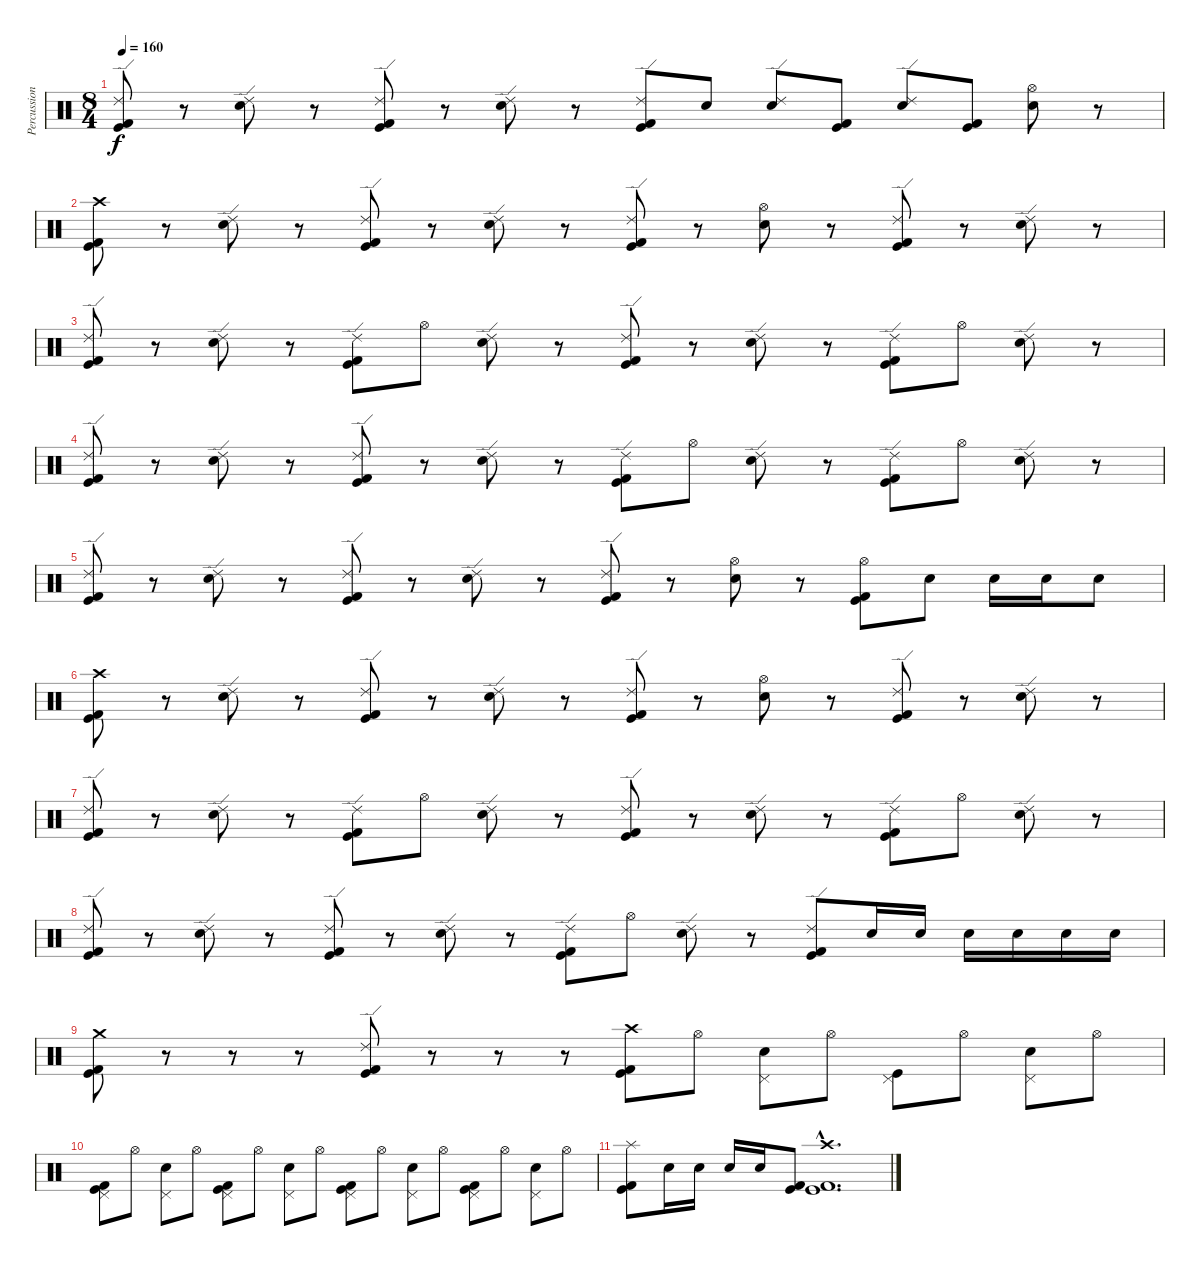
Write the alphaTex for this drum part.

\track ("Percussion" "Percussion") {instrument percussion}
\staff {score}
\articulation defaults
\ts (8 4)
\tempo 160
\clef neutral
\ks c
("Ride (edge) 2" "Kick (hit) 2" "Kick (hit)").8{dy f} r.8 ("Ride (edge) 2" "Snare (hit) 2").8 r.8 ("Ride (edge) 2" "Kick (hit) 2" "Kick (hit)").8 r.8 ("Ride (edge) 2" "Snare (hit) 2").8 r.8 ("Ride (edge) 2" "Kick (hit) 2" "Kick (hit)").8 "Snare (hit) 2".8 ("Ride (edge) 2" "Snare (hit) 2").8 ("Kick (hit) 2" "Kick (hit)").8 ("Ride (edge) 2" "Snare (hit) 2").8 ("Kick (hit) 2" "Kick (hit)").8 ("Hi-Hat (open)" "Snare (hit) 2").8 r.8 |
("Crash high (hit)" "Kick (hit) 2" "Kick (hit)").8 r.8 ("Ride (edge) 2" "Snare (hit) 2").8 r.8 ("Ride (edge) 2" "Kick (hit) 2" "Kick (hit)").8 r.8 ("Ride (edge) 2" "Snare (hit) 2").8 r.8 ("Ride (edge) 2" "Kick (hit) 2" "Kick (hit)").8 r.8 ("Hi-Hat (open)" "Snare (hit) 2").8 r.8 ("Ride (edge) 2" "Kick (hit) 2" "Kick (hit)").8 r.8 ("Ride (edge) 2" "Snare (hit) 2").8 r.8 |
("Ride (edge) 2" "Kick (hit) 2" "Kick (hit)").8 r.8 ("Ride (edge) 2" "Snare (hit) 2").8 r.8 ("Ride (edge) 2" "Kick (hit) 2" "Kick (hit)").8 "Hi-Hat (open)".8 ("Ride (edge) 2" "Snare (hit) 2").8 r.8 ("Ride (edge) 2" "Kick (hit) 2" "Kick (hit)").8 r.8 ("Ride (edge) 2" "Snare (hit) 2").8 r.8 ("Ride (edge) 2" "Kick (hit) 2" "Kick (hit)").8 "Hi-Hat (open)".8 ("Ride (edge) 2" "Snare (hit) 2").8 r.8 |
("Ride (edge) 2" "Kick (hit) 2" "Kick (hit)").8 r.8 ("Ride (edge) 2" "Snare (hit) 2").8 r.8 ("Ride (edge) 2" "Kick (hit) 2" "Kick (hit)").8 r.8 ("Ride (edge) 2" "Snare (hit) 2").8 r.8 ("Ride (edge) 2" "Kick (hit) 2" "Kick (hit)").8 "Hi-Hat (open)".8 ("Ride (edge) 2" "Snare (hit) 2").8 r.8 ("Ride (edge) 2" "Kick (hit) 2" "Kick (hit)").8 "Hi-Hat (open)".8 ("Ride (edge) 2" "Snare (hit) 2").8 r.8 |
("Ride (edge) 2" "Kick (hit) 2" "Kick (hit)").8 r.8 ("Ride (edge) 2" "Snare (hit) 2").8 r.8 ("Ride (edge) 2" "Kick (hit) 2" "Kick (hit)").8 r.8 ("Ride (edge) 2" "Snare (hit) 2").8 r.8 ("Ride (edge) 2" "Kick (hit) 2" "Kick (hit)").8 r.8 ("Hi-Hat (open)" "Snare (hit) 2").8 r.8 ("Hi-Hat (open)" "Kick (hit) 2" "Kick (hit)").8 "Snare (hit) 2".8 "Snare (hit) 2".16 "Snare (hit) 2".16 "Snare (hit) 2".8 |
("Crash high (hit)" "Kick (hit) 2" "Kick (hit)").8 r.8 ("Ride (edge) 2" "Snare (hit) 2").8 r.8 ("Ride (edge) 2" "Kick (hit) 2" "Kick (hit)").8 r.8 ("Ride (edge) 2" "Snare (hit) 2").8 r.8 ("Ride (edge) 2" "Kick (hit) 2" "Kick (hit)").8 r.8 ("Hi-Hat (open)" "Snare (hit) 2").8 r.8 ("Ride (edge) 2" "Kick (hit) 2" "Kick (hit)").8 r.8 ("Ride (edge) 2" "Snare (hit) 2").8 r.8 |
("Ride (edge) 2" "Kick (hit) 2" "Kick (hit)").8 r.8 ("Ride (edge) 2" "Snare (hit) 2").8 r.8 ("Ride (edge) 2" "Kick (hit) 2" "Kick (hit)").8 "Hi-Hat (open)".8 ("Ride (edge) 2" "Snare (hit) 2").8 r.8 ("Ride (edge) 2" "Kick (hit) 2" "Kick (hit)").8 r.8 ("Ride (edge) 2" "Snare (hit) 2").8 r.8 ("Ride (edge) 2" "Kick (hit) 2" "Kick (hit)").8 "Hi-Hat (open)".8 ("Ride (edge) 2" "Snare (hit) 2").8 r.8 |
("Ride (edge) 2" "Kick (hit) 2" "Kick (hit)").8 r.8 ("Ride (edge) 2" "Snare (hit) 2").8 r.8 ("Ride (edge) 2" "Kick (hit) 2" "Kick (hit)").8 r.8 ("Ride (edge) 2" "Snare (hit) 2").8 r.8 ("Ride (edge) 2" "Kick (hit) 2" "Kick (hit)").8 "Hi-Hat (open)".8 ("Ride (edge) 2" "Snare (hit) 2").8 r.8 ("Ride (edge) 2" "Kick (hit) 2" "Kick (hit)").8 "Snare (hit) 2".16 "Snare (hit) 2".16 "Snare (hit) 2".16 "Snare (hit) 2".16 "Snare (hit) 2".16 "Snare (hit) 2".16 |
("Crash medium (hit)" "Kick (hit) 2" "Kick (hit)").8 r.8 r.8 r.8 ("Ride (edge) 2" "Kick (hit) 2" "Kick (hit)").8 r.8 r.8 r.8 ("Crash high (hit)" "Kick (hit) 2" "Kick (hit)").8 "Hi-Hat (open)".8 ("Pedal Hi-Hat (hit)" "Snare (hit) 2").8 "Hi-Hat (open)".8 ("Pedal Hi-Hat (hit)" "Kick (hit)").8 "Hi-Hat (open)".8 ("Pedal Hi-Hat (hit)" "Snare (hit) 2").8 "Hi-Hat (open)".8 |
("Pedal Hi-Hat (hit)" "Kick (hit) 2" "Kick (hit)").8 "Hi-Hat (open)".8 ("Pedal Hi-Hat (hit)" "Snare (hit) 2").8 "Hi-Hat (open)".8 ("Pedal Hi-Hat (hit)" "Kick (hit) 2" "Kick (hit)").8 "Hi-Hat (open)".8 ("Pedal Hi-Hat (hit)" "Snare (hit) 2").8 "Hi-Hat (open)".8 ("Pedal Hi-Hat (hit)" "Kick (hit) 2" "Kick (hit)").8 "Hi-Hat (open)".8 ("Pedal Hi-Hat (hit)" "Snare (hit) 2").8 "Hi-Hat (open)".8 ("Pedal Hi-Hat (hit)" "Kick (hit) 2" "Kick (hit)").8 "Hi-Hat (open)".8 ("Pedal Hi-Hat (hit)" "Snare (hit) 2").8 "Hi-Hat (open)".8 |
("Splash (hit)" "Kick (hit) 2" "Kick (hit)").8 "Snare (hit) 2".16 "Snare (hit) 2".16 "Snare (hit) 2".16 "Snare (hit) 2".16 ("Kick (hit)" "Kick (hit) 2").8 ("Crash high (hit)"{hac} "Kick (hit)"{hac} "Kick (hit) 2"{hac}).1{d}
